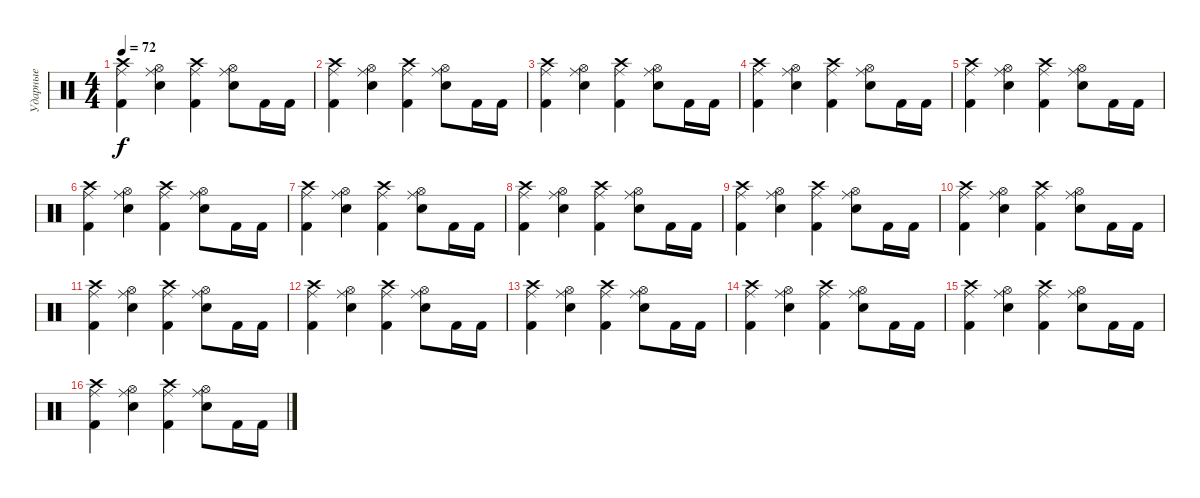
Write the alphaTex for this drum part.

\track ("Ударные" "Ударные") {instrument percussion}
\staff {score}
\articulation defaults
\ts (4 4)
\tempo 72
\clef neutral
\ks c
("Ride (middle)" "Crash high (hit)" "Kick (hit) 2").4{dy f} ("Ride (middle)" "Hi-Hat (open)" "Snare (hit) 2").4 ("Ride (middle)" "Crash high (hit)" "Kick (hit) 2").4 ("Ride (middle)" "Hi-Hat (open)" "Snare (hit) 2").8 "Kick (hit) 2".16 "Kick (hit) 2".16 |
("Ride (middle)" "Crash high (hit)" "Kick (hit) 2").4 ("Ride (middle)" "Hi-Hat (open)" "Snare (hit) 2").4 ("Ride (middle)" "Crash high (hit)" "Kick (hit) 2").4 ("Ride (middle)" "Hi-Hat (open)" "Snare (hit) 2").8 "Kick (hit) 2".16 "Kick (hit) 2".16 |
("Ride (middle)" "Crash high (hit)" "Kick (hit) 2").4 ("Ride (middle)" "Hi-Hat (open)" "Snare (hit) 2").4 ("Ride (middle)" "Crash high (hit)" "Kick (hit) 2").4 ("Ride (middle)" "Hi-Hat (open)" "Snare (hit) 2").8 "Kick (hit) 2".16 "Kick (hit) 2".16 |
("Ride (middle)" "Crash high (hit)" "Kick (hit) 2").4 ("Ride (middle)" "Hi-Hat (open)" "Snare (hit) 2").4 ("Ride (middle)" "Crash high (hit)" "Kick (hit) 2").4 ("Ride (middle)" "Hi-Hat (open)" "Snare (hit) 2").8 "Kick (hit) 2".16 "Kick (hit) 2".16 |
("Ride (middle)" "Crash high (hit)" "Kick (hit) 2").4 ("Ride (middle)" "Hi-Hat (open)" "Snare (hit) 2").4 ("Ride (middle)" "Crash high (hit)" "Kick (hit) 2").4 ("Ride (middle)" "Hi-Hat (open)" "Snare (hit) 2").8 "Kick (hit) 2".16 "Kick (hit) 2".16 |
("Ride (middle)" "Crash high (hit)" "Kick (hit) 2").4 ("Ride (middle)" "Hi-Hat (open)" "Snare (hit) 2").4 ("Ride (middle)" "Crash high (hit)" "Kick (hit) 2").4 ("Ride (middle)" "Hi-Hat (open)" "Snare (hit) 2").8 "Kick (hit) 2".16 "Kick (hit) 2".16 |
("Ride (middle)" "Crash high (hit)" "Kick (hit) 2").4 ("Ride (middle)" "Hi-Hat (open)" "Snare (hit) 2").4 ("Ride (middle)" "Crash high (hit)" "Kick (hit) 2").4 ("Ride (middle)" "Hi-Hat (open)" "Snare (hit) 2").8 "Kick (hit) 2".16 "Kick (hit) 2".16 |
("Ride (middle)" "Crash high (hit)" "Kick (hit) 2").4 ("Ride (middle)" "Hi-Hat (open)" "Snare (hit) 2").4 ("Ride (middle)" "Crash high (hit)" "Kick (hit) 2").4 ("Ride (middle)" "Hi-Hat (open)" "Snare (hit) 2").8 "Kick (hit) 2".16 "Kick (hit) 2".16 |
("Ride (middle)" "Crash high (hit)" "Kick (hit) 2").4 ("Ride (middle)" "Hi-Hat (open)" "Snare (hit) 2").4 ("Ride (middle)" "Crash high (hit)" "Kick (hit) 2").4 ("Ride (middle)" "Hi-Hat (open)" "Snare (hit) 2").8 "Kick (hit) 2".16 "Kick (hit) 2".16 |
("Ride (middle)" "Crash high (hit)" "Kick (hit) 2").4 ("Ride (middle)" "Hi-Hat (open)" "Snare (hit) 2").4 ("Ride (middle)" "Crash high (hit)" "Kick (hit) 2").4 ("Ride (middle)" "Hi-Hat (open)" "Snare (hit) 2").8 "Kick (hit) 2".16 "Kick (hit) 2".16 |
("Ride (middle)" "Crash high (hit)" "Kick (hit) 2").4 ("Ride (middle)" "Hi-Hat (open)" "Snare (hit) 2").4 ("Ride (middle)" "Crash high (hit)" "Kick (hit) 2").4 ("Ride (middle)" "Hi-Hat (open)" "Snare (hit) 2").8 "Kick (hit) 2".16 "Kick (hit) 2".16 |
("Ride (middle)" "Crash high (hit)" "Kick (hit) 2").4 ("Ride (middle)" "Hi-Hat (open)" "Snare (hit) 2").4 ("Ride (middle)" "Crash high (hit)" "Kick (hit) 2").4 ("Ride (middle)" "Hi-Hat (open)" "Snare (hit) 2").8 "Kick (hit) 2".16 "Kick (hit) 2".16 |
("Ride (middle)" "Crash high (hit)" "Kick (hit) 2").4 ("Ride (middle)" "Hi-Hat (open)" "Snare (hit) 2").4 ("Ride (middle)" "Crash high (hit)" "Kick (hit) 2").4 ("Ride (middle)" "Hi-Hat (open)" "Snare (hit) 2").8 "Kick (hit) 2".16 "Kick (hit) 2".16 |
("Ride (middle)" "Crash high (hit)" "Kick (hit) 2").4 ("Ride (middle)" "Hi-Hat (open)" "Snare (hit) 2").4 ("Ride (middle)" "Crash high (hit)" "Kick (hit) 2").4 ("Ride (middle)" "Hi-Hat (open)" "Snare (hit) 2").8 "Kick (hit) 2".16 "Kick (hit) 2".16 |
("Ride (middle)" "Crash high (hit)" "Kick (hit) 2").4 ("Ride (middle)" "Hi-Hat (open)" "Snare (hit) 2").4 ("Ride (middle)" "Crash high (hit)" "Kick (hit) 2").4 ("Ride (middle)" "Hi-Hat (open)" "Snare (hit) 2").8 "Kick (hit) 2".16 "Kick (hit) 2".16 |
("Ride (middle)" "Crash high (hit)" "Kick (hit) 2").4 ("Ride (middle)" "Hi-Hat (open)" "Snare (hit) 2").4 ("Ride (middle)" "Crash high (hit)" "Kick (hit) 2").4 ("Ride (middle)" "Hi-Hat (open)" "Snare (hit) 2").8 "Kick (hit) 2".16 "Kick (hit) 2".16
